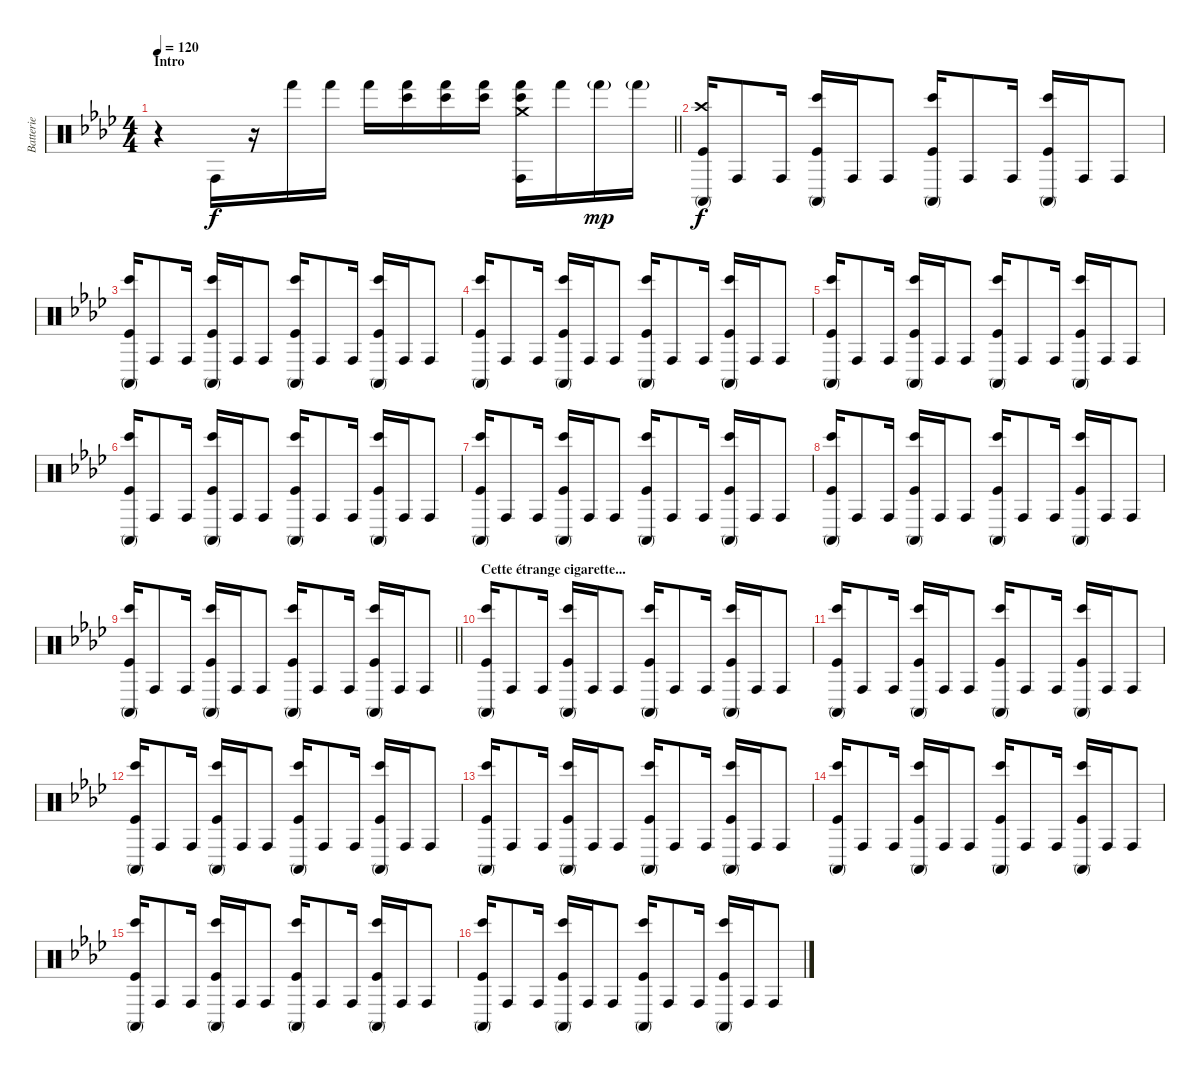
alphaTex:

\track ("Batterie" "Batterie") {instrument percussion}
\staff {score}
\articulation defaults
\ts (4 4)
\section ("" "Intro")
\tempo 120
\clef neutral
\barLineRight lightlight
\ks fminor
r.4{dy f} "Conga high (hit)".16 r.16 "Hand (hit)".16 "Hand (hit)".16 "Hand (hit)".16 ("Hand (hit)" "Bongo High (hit)").16 ("Hand (hit)" "Bongo High (hit)").16 ("Hand (hit)" "Bongo High (hit)").16 ("Conga high (hit)" "Crash medium (hit)" "Hand (hit)" "Bongo High (hit)").16 "Hand (hit)".16 "Hand (hit)"{g}.16{dy mp} "Hand (hit)"{g}.16 |
("Crash high (hit)" "Conga high (mute)" "Kick (hit)").16{dy f} "Conga high (hit)".8 "Conga high (hit)".16 ("Bongo High (hit)" "Conga high (mute)" "Kick (hit)").16 "Conga high (hit)".16 "Conga high (hit)".8 ("Bongo High (hit)" "Conga high (mute)" "Kick (hit)").16 "Conga high (hit)".8 "Conga high (hit)".16 ("Bongo High (hit)" "Conga high (mute)" "Kick (hit)").16 "Conga high (hit)".16 "Conga high (hit)".8 |
("Bongo High (hit)" "Conga high (mute)" "Kick (hit)").16 "Conga high (hit)".8 "Conga high (hit)".16 ("Bongo High (hit)" "Conga high (mute)" "Kick (hit)").16 "Conga high (hit)".16 "Conga high (hit)".8 ("Bongo High (hit)" "Conga high (mute)" "Kick (hit)").16 "Conga high (hit)".8 "Conga high (hit)".16 ("Bongo High (hit)" "Conga high (mute)" "Kick (hit)").16 "Conga high (hit)".16 "Conga high (hit)".8 |
("Bongo High (hit)" "Conga high (mute)" "Kick (hit)").16 "Conga high (hit)".8 "Conga high (hit)".16 ("Bongo High (hit)" "Conga high (mute)" "Kick (hit)").16 "Conga high (hit)".16 "Conga high (hit)".8 ("Bongo High (hit)" "Conga high (mute)" "Kick (hit)").16 "Conga high (hit)".8 "Conga high (hit)".16 ("Bongo High (hit)" "Conga high (mute)" "Kick (hit)").16 "Conga high (hit)".16 "Conga high (hit)".8 |
("Bongo High (hit)" "Conga high (mute)" "Kick (hit)").16 "Conga high (hit)".8 "Conga high (hit)".16 ("Bongo High (hit)" "Conga high (mute)" "Kick (hit)").16 "Conga high (hit)".16 "Conga high (hit)".8 ("Bongo High (hit)" "Conga high (mute)" "Kick (hit)").16 "Conga high (hit)".8 "Conga high (hit)".16 ("Bongo High (hit)" "Conga high (mute)" "Kick (hit)").16 "Conga high (hit)".16 "Conga high (hit)".8 |
("Bongo High (hit)" "Conga high (mute)" "Kick (hit)").16 "Conga high (hit)".8 "Conga high (hit)".16 ("Bongo High (hit)" "Conga high (mute)" "Kick (hit)").16 "Conga high (hit)".16 "Conga high (hit)".8 ("Bongo High (hit)" "Conga high (mute)" "Kick (hit)").16 "Conga high (hit)".8 "Conga high (hit)".16 ("Bongo High (hit)" "Conga high (mute)" "Kick (hit)").16 "Conga high (hit)".16 "Conga high (hit)".8 |
("Bongo High (hit)" "Conga high (mute)" "Kick (hit)").16 "Conga high (hit)".8 "Conga high (hit)".16 ("Bongo High (hit)" "Conga high (mute)" "Kick (hit)").16 "Conga high (hit)".16 "Conga high (hit)".8 ("Bongo High (hit)" "Conga high (mute)" "Kick (hit)").16 "Conga high (hit)".8 "Conga high (hit)".16 ("Bongo High (hit)" "Conga high (mute)" "Kick (hit)").16 "Conga high (hit)".16 "Conga high (hit)".8 |
("Bongo High (hit)" "Conga high (mute)" "Kick (hit)").16 "Conga high (hit)".8 "Conga high (hit)".16 ("Bongo High (hit)" "Conga high (mute)" "Kick (hit)").16 "Conga high (hit)".16 "Conga high (hit)".8 ("Bongo High (hit)" "Conga high (mute)" "Kick (hit)").16 "Conga high (hit)".8 "Conga high (hit)".16 ("Bongo High (hit)" "Conga high (mute)" "Kick (hit)").16 "Conga high (hit)".16 "Conga high (hit)".8 |
\barLineRight lightlight
("Bongo High (hit)" "Conga high (mute)" "Kick (hit)").16 "Conga high (hit)".8 "Conga high (hit)".16 ("Bongo High (hit)" "Conga high (mute)" "Kick (hit)").16 "Conga high (hit)".16 "Conga high (hit)".8 ("Bongo High (hit)" "Conga high (mute)" "Kick (hit)").16 "Conga high (hit)".8 "Conga high (hit)".16 ("Bongo High (hit)" "Conga high (mute)" "Kick (hit)").16 "Conga high (hit)".16 "Conga high (hit)".8 |
\section ("" "Cette étrange cigarette...")
("Bongo High (hit)" "Conga high (mute)" "Kick (hit)").16 "Conga high (hit)".8 "Conga high (hit)".16 ("Bongo High (hit)" "Conga high (mute)" "Kick (hit)").16 "Conga high (hit)".16 "Conga high (hit)".8 ("Bongo High (hit)" "Conga high (mute)" "Kick (hit)").16 "Conga high (hit)".8 "Conga high (hit)".16 ("Bongo High (hit)" "Conga high (mute)" "Kick (hit)").16 "Conga high (hit)".16 "Conga high (hit)".8 |
("Bongo High (hit)" "Conga high (mute)" "Kick (hit)").16 "Conga high (hit)".8 "Conga high (hit)".16 ("Bongo High (hit)" "Conga high (mute)" "Kick (hit)").16 "Conga high (hit)".16 "Conga high (hit)".8 ("Bongo High (hit)" "Conga high (mute)" "Kick (hit)").16 "Conga high (hit)".8 "Conga high (hit)".16 ("Bongo High (hit)" "Conga high (mute)" "Kick (hit)").16 "Conga high (hit)".16 "Conga high (hit)".8 |
("Bongo High (hit)" "Conga high (mute)" "Kick (hit)").16 "Conga high (hit)".8 "Conga high (hit)".16 ("Bongo High (hit)" "Conga high (mute)" "Kick (hit)").16 "Conga high (hit)".16 "Conga high (hit)".8 ("Bongo High (hit)" "Conga high (mute)" "Kick (hit)").16 "Conga high (hit)".8 "Conga high (hit)".16 ("Bongo High (hit)" "Conga high (mute)" "Kick (hit)").16 "Conga high (hit)".16 "Conga high (hit)".8 |
("Bongo High (hit)" "Conga high (mute)" "Kick (hit)").16 "Conga high (hit)".8 "Conga high (hit)".16 ("Bongo High (hit)" "Conga high (mute)" "Kick (hit)").16 "Conga high (hit)".16 "Conga high (hit)".8 ("Bongo High (hit)" "Conga high (mute)" "Kick (hit)").16 "Conga high (hit)".8 "Conga high (hit)".16 ("Bongo High (hit)" "Conga high (mute)" "Kick (hit)").16 "Conga high (hit)".16 "Conga high (hit)".8 |
("Bongo High (hit)" "Conga high (mute)" "Kick (hit)").16 "Conga high (hit)".8 "Conga high (hit)".16 ("Bongo High (hit)" "Conga high (mute)" "Kick (hit)").16 "Conga high (hit)".16 "Conga high (hit)".8 ("Bongo High (hit)" "Conga high (mute)" "Kick (hit)").16 "Conga high (hit)".8 "Conga high (hit)".16 ("Bongo High (hit)" "Conga high (mute)" "Kick (hit)").16 "Conga high (hit)".16 "Conga high (hit)".8 |
("Bongo High (hit)" "Conga high (mute)" "Kick (hit)").16 "Conga high (hit)".8 "Conga high (hit)".16 ("Bongo High (hit)" "Conga high (mute)" "Kick (hit)").16 "Conga high (hit)".16 "Conga high (hit)".8 ("Bongo High (hit)" "Conga high (mute)" "Kick (hit)").16 "Conga high (hit)".8 "Conga high (hit)".16 ("Bongo High (hit)" "Conga high (mute)" "Kick (hit)").16 "Conga high (hit)".16 "Conga high (hit)".8 |
("Bongo High (hit)" "Conga high (mute)" "Kick (hit)").16 "Conga high (hit)".8 "Conga high (hit)".16 ("Bongo High (hit)" "Conga high (mute)" "Kick (hit)").16 "Conga high (hit)".16 "Conga high (hit)".8 ("Bongo High (hit)" "Conga high (mute)" "Kick (hit)").16 "Conga high (hit)".8 "Conga high (hit)".16 ("Bongo High (hit)" "Conga high (mute)" "Kick (hit)").16 "Conga high (hit)".16 "Conga high (hit)".8
